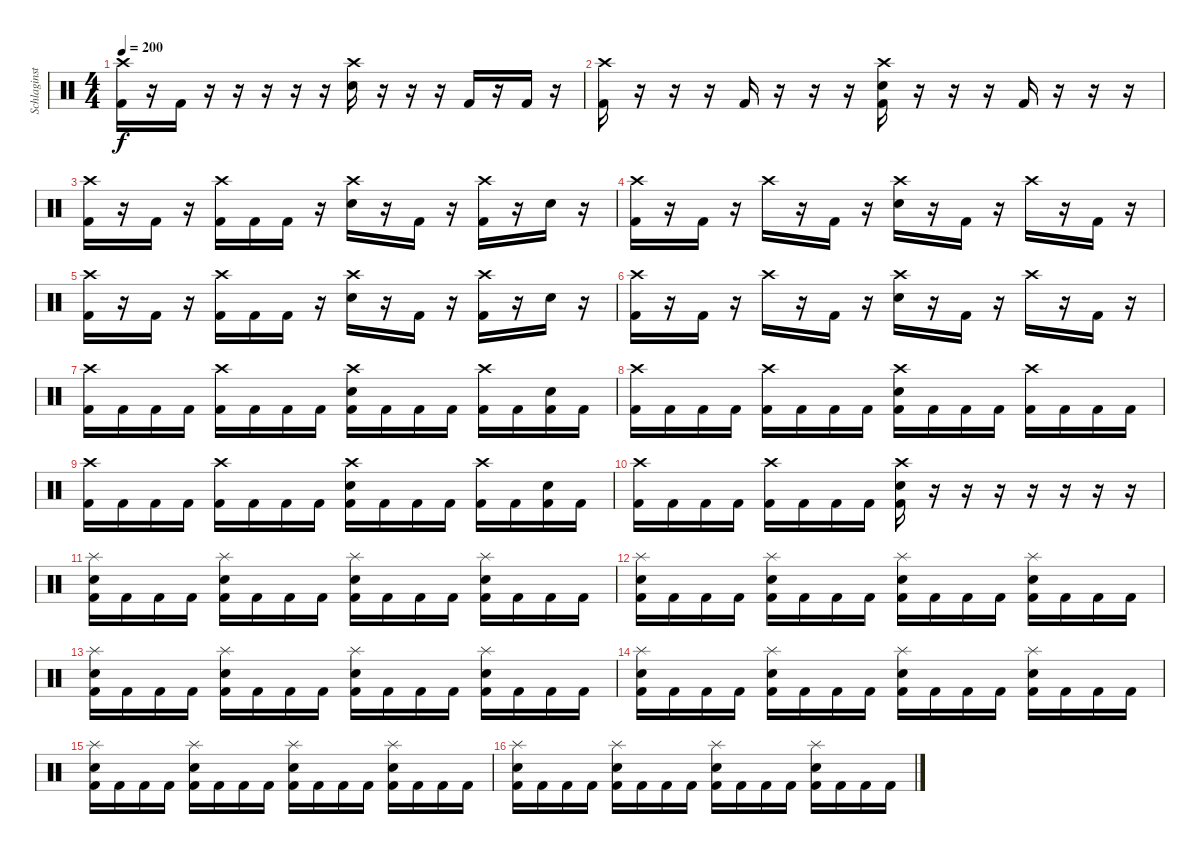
\track ("Schlaginstrumente - Auswahl" "Schlaginst") {instrument percussion}
\staff {score}
\articulation defaults
\ts (4 4)
\tempo 200
\clef neutral
\ks c
("Crash high (hit)" "Kick (hit) 2").16{dy f} r.16 "Kick (hit) 2".16 r.16 r.16 r.16 r.16 r.16 ("Crash high (hit)" "Electric Snare (hit)").16 r.16 r.16 r.16 "Kick (hit) 2".16 r.16 "Kick (hit) 2".16 r.16 |
("Crash high (hit)" "Kick (hit) 2").16 r.16 r.16 r.16 "Kick (hit) 2".16 r.16 r.16 r.16 ("Crash high (hit)" "Electric Snare (hit)" "Kick (hit) 2").16 r.16 r.16 r.16 "Kick (hit) 2".16 r.16 r.16 r.16 |
("Crash high (hit)" "Kick (hit) 2").16 r.16 "Kick (hit) 2".16 r.16 ("Crash high (hit)" "Kick (hit) 2").16 "Kick (hit) 2".16 "Kick (hit) 2".16 r.16 ("Crash high (hit)" "Electric Snare (hit)").16 r.16 "Kick (hit) 2".16 r.16 ("Crash high (hit)" "Kick (hit) 2").16 r.16 "Electric Snare (hit)".16 r.16 |
("Crash high (hit)" "Kick (hit) 2").16 r.16 "Kick (hit) 2".16 r.16 "Crash high (hit)".16 r.16 "Kick (hit) 2".16 r.16 ("Crash high (hit)" "Electric Snare (hit)").16 r.16 "Kick (hit) 2".16 r.16 "Crash high (hit)".16 r.16 "Kick (hit) 2".16 r.16 |
("Crash high (hit)" "Kick (hit) 2").16 r.16 "Kick (hit) 2".16 r.16 ("Crash high (hit)" "Kick (hit) 2").16 "Kick (hit) 2".16 "Kick (hit) 2".16 r.16 ("Crash high (hit)" "Electric Snare (hit)").16 r.16 "Kick (hit) 2".16 r.16 ("Crash high (hit)" "Kick (hit) 2").16 r.16 "Electric Snare (hit)".16 r.16 |
("Crash high (hit)" "Kick (hit) 2").16 r.16 "Kick (hit) 2".16 r.16 "Crash high (hit)".16 r.16 "Kick (hit) 2".16 r.16 ("Crash high (hit)" "Electric Snare (hit)").16 r.16 "Kick (hit) 2".16 r.16 "Crash high (hit)".16 r.16 "Kick (hit) 2".16 r.16 |
("Crash high (hit)" "Kick (hit) 2").16 "Kick (hit) 2".16 "Kick (hit) 2".16 "Kick (hit) 2".16 ("Crash high (hit)" "Kick (hit) 2").16 "Kick (hit) 2".16 "Kick (hit) 2".16 "Kick (hit) 2".16 ("Crash high (hit)" "Electric Snare (hit)" "Kick (hit) 2").16 "Kick (hit) 2".16 "Kick (hit) 2".16 "Kick (hit) 2".16 ("Crash high (hit)" "Kick (hit) 2").16 "Kick (hit) 2".16 ("Electric Snare (hit)" "Kick (hit) 2").16 "Kick (hit) 2".16 |
("Crash high (hit)" "Kick (hit) 2").16 "Kick (hit) 2".16 "Kick (hit) 2".16 "Kick (hit) 2".16 ("Crash high (hit)" "Kick (hit) 2").16 "Kick (hit) 2".16 "Kick (hit) 2".16 "Kick (hit) 2".16 ("Crash high (hit)" "Electric Snare (hit)" "Kick (hit) 2").16 "Kick (hit) 2".16 "Kick (hit) 2".16 "Kick (hit) 2".16 ("Crash high (hit)" "Kick (hit) 2").16 "Kick (hit) 2".16 "Kick (hit) 2".16 "Kick (hit) 2".16 |
("Crash high (hit)" "Kick (hit) 2").16 "Kick (hit) 2".16 "Kick (hit) 2".16 "Kick (hit) 2".16 ("Crash high (hit)" "Kick (hit) 2").16 "Kick (hit) 2".16 "Kick (hit) 2".16 "Kick (hit) 2".16 ("Crash high (hit)" "Electric Snare (hit)" "Kick (hit) 2").16 "Kick (hit) 2".16 "Kick (hit) 2".16 "Kick (hit) 2".16 ("Crash high (hit)" "Kick (hit) 2").16 "Kick (hit) 2".16 ("Electric Snare (hit)" "Kick (hit) 2").16 "Kick (hit) 2".16 |
("Crash high (hit)" "Kick (hit) 2").16 "Kick (hit) 2".16 "Kick (hit) 2".16 "Kick (hit) 2".16 ("Crash high (hit)" "Kick (hit) 2").16 "Kick (hit) 2".16 "Kick (hit) 2".16 "Kick (hit) 2".16 ("Crash high (hit)" "Electric Snare (hit)" "Kick (hit) 2").16 r.16 r.16 r.16 r.16 r.16 r.16 r.16 |
("Splash (hit)" "Electric Snare (hit)" "Kick (hit) 2").16 "Kick (hit) 2".16 "Kick (hit) 2".16 "Kick (hit) 2".16 ("Splash (hit)" "Electric Snare (hit)" "Kick (hit) 2").16 "Kick (hit) 2".16 "Kick (hit) 2".16 "Kick (hit) 2".16 ("Splash (hit)" "Electric Snare (hit)" "Kick (hit) 2").16 "Kick (hit) 2".16 "Kick (hit) 2".16 "Kick (hit) 2".16 ("Splash (hit)" "Electric Snare (hit)" "Kick (hit) 2").16 "Kick (hit) 2".16 "Kick (hit) 2".16 "Kick (hit) 2".16 |
("Splash (hit)" "Electric Snare (hit)" "Kick (hit) 2").16 "Kick (hit) 2".16 "Kick (hit) 2".16 "Kick (hit) 2".16 ("Splash (hit)" "Electric Snare (hit)" "Kick (hit) 2").16 "Kick (hit) 2".16 "Kick (hit) 2".16 "Kick (hit) 2".16 ("Splash (hit)" "Electric Snare (hit)" "Kick (hit) 2").16 "Kick (hit) 2".16 "Kick (hit) 2".16 "Kick (hit) 2".16 ("Splash (hit)" "Electric Snare (hit)" "Kick (hit) 2").16 "Kick (hit) 2".16 "Kick (hit) 2".16 "Kick (hit) 2".16 |
("Splash (hit)" "Electric Snare (hit)" "Kick (hit) 2").16 "Kick (hit) 2".16 "Kick (hit) 2".16 "Kick (hit) 2".16 ("Splash (hit)" "Electric Snare (hit)" "Kick (hit) 2").16 "Kick (hit) 2".16 "Kick (hit) 2".16 "Kick (hit) 2".16 ("Splash (hit)" "Electric Snare (hit)" "Kick (hit) 2").16 "Kick (hit) 2".16 "Kick (hit) 2".16 "Kick (hit) 2".16 ("Splash (hit)" "Electric Snare (hit)" "Kick (hit) 2").16 "Kick (hit) 2".16 "Kick (hit) 2".16 "Kick (hit) 2".16 |
("Splash (hit)" "Electric Snare (hit)" "Kick (hit) 2").16 "Kick (hit) 2".16 "Kick (hit) 2".16 "Kick (hit) 2".16 ("Splash (hit)" "Electric Snare (hit)" "Kick (hit) 2").16 "Kick (hit) 2".16 "Kick (hit) 2".16 "Kick (hit) 2".16 ("Splash (hit)" "Electric Snare (hit)" "Kick (hit) 2").16 "Kick (hit) 2".16 "Kick (hit) 2".16 "Kick (hit) 2".16 ("Splash (hit)" "Electric Snare (hit)" "Kick (hit) 2").16 "Kick (hit) 2".16 "Kick (hit) 2".16 "Kick (hit) 2".16 |
("Splash (hit)" "Electric Snare (hit)" "Kick (hit) 2").16 "Kick (hit) 2".16 "Kick (hit) 2".16 "Kick (hit) 2".16 ("Splash (hit)" "Electric Snare (hit)" "Kick (hit) 2").16 "Kick (hit) 2".16 "Kick (hit) 2".16 "Kick (hit) 2".16 ("Splash (hit)" "Electric Snare (hit)" "Kick (hit) 2").16 "Kick (hit) 2".16 "Kick (hit) 2".16 "Kick (hit) 2".16 ("Splash (hit)" "Electric Snare (hit)" "Kick (hit) 2").16 "Kick (hit) 2".16 "Kick (hit) 2".16 "Kick (hit) 2".16 |
("Splash (hit)" "Electric Snare (hit)" "Kick (hit) 2").16 "Kick (hit) 2".16 "Kick (hit) 2".16 "Kick (hit) 2".16 ("Splash (hit)" "Electric Snare (hit)" "Kick (hit) 2").16 "Kick (hit) 2".16 "Kick (hit) 2".16 "Kick (hit) 2".16 ("Splash (hit)" "Electric Snare (hit)" "Kick (hit) 2").16 "Kick (hit) 2".16 "Kick (hit) 2".16 "Kick (hit) 2".16 ("Splash (hit)" "Electric Snare (hit)" "Kick (hit) 2").16 "Kick (hit) 2".16 "Kick (hit) 2".16 "Kick (hit) 2".16
